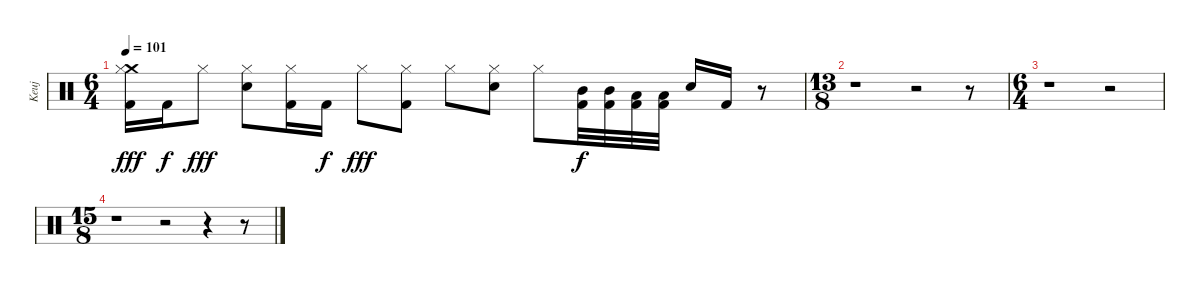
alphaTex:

\track ("Keuj" "Keuj") {instrument percussion}
\staff {score}
\articulation defaults
\ts (6 4)
\tempo 101
\clef neutral
\ks c
("Crash medium (hit)" "Hi-Hat (closed)" "Kick (hit) 2").16{dy fff} "Kick (hit) 2".16{dy f} "Hi-Hat (closed)".8{dy fff} ("Electric Snare (hit)" "Hi-Hat (closed)").8 ("Hi-Hat (closed)" "Kick (hit) 2").16 "Kick (hit) 2".16{dy f} "Hi-Hat (closed)".8{dy fff} ("Hi-Hat (closed)" "Kick (hit) 2").8 "Hi-Hat (closed)".8 ("Electric Snare (hit)" "Hi-Hat (closed)").8 "Hi-Hat (closed)".8 ("Mid Tom (hit)" "Kick (hit) 2").32{dy f} ("Mid Tom (hit)" "Kick (hit) 2").32 ("Low Tom (hit)" "Kick (hit) 2").32 ("Low Tom (hit)" "Kick (hit) 2").32 "Electric Snare (hit)".16 "Kick (hit) 2".16 r.8 |
\ts (13 8)
r.1 r.2 r.8 |
\ts (6 4)
r.1 r.2 |
\ts (15 8)
r.1 r.2 r.4 r.8
